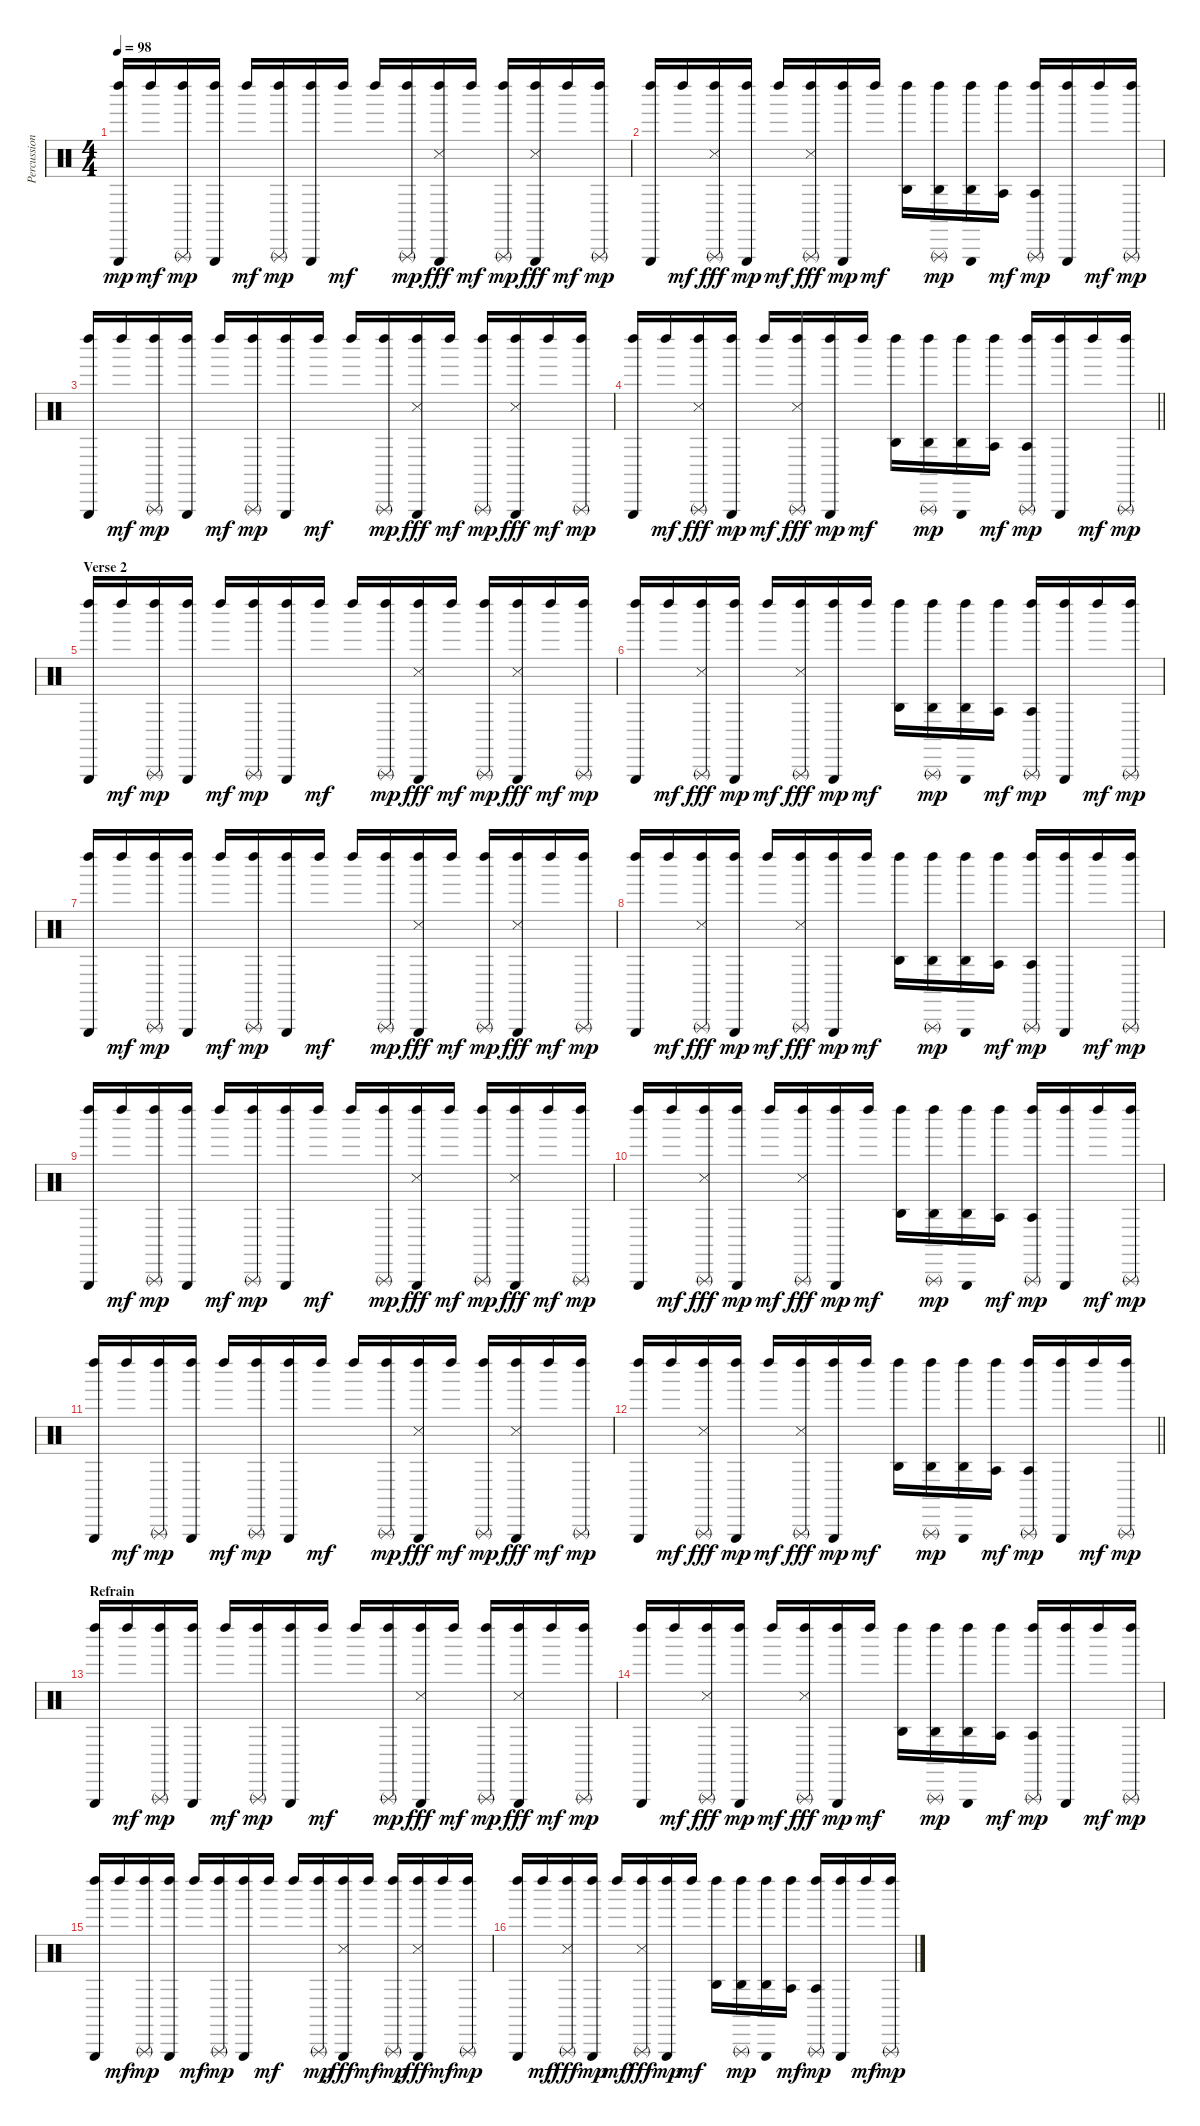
\track ("Percussions (Dr-0)" "Percussion") {instrument percussion}
\staff {score}
\articulation defaults
\ts (4 4)
\tempo 98
\clef neutral
\ks c
("Left Maraca (hit)" "Triangle (hit)").16{dy mp} "Left Maraca (hit)".16{dy mf} ("Left Maraca (hit)" "Triangle (rnute)").16{dy mp} ("Left Maraca (hit)" "Triangle (hit)").16 "Left Maraca (hit)".16{dy mf} ("Left Maraca (hit)" "Triangle (rnute)").16{dy mp} ("Left Maraca (hit)" "Triangle (hit)").16 "Left Maraca (hit)".16{dy mf} "Left Maraca (hit)".16 ("Left Maraca (hit)" "Triangle (rnute)").16{dy mp} ("Left Maraca (hit)" "Triangle (hit)" "Snare (side stick) 3").16{dy fff} "Left Maraca (hit)".16{dy mf} ("Left Maraca (hit)" "Triangle (rnute)").16{dy mp} ("Left Maraca (hit)" "Triangle (hit)" "Snare (side stick) 3").16{dy fff} "Left Maraca (hit)".16{dy mf} ("Left Maraca (hit)" "Triangle (rnute)").16{dy mp} |
("Left Maraca (hit)" "Triangle (hit)").16 "Left Maraca (hit)".16{dy mf} ("Left Maraca (hit)" "Triangle (rnute)" "Snare (side stick) 3").16{dy fff} ("Left Maraca (hit)" "Triangle (hit)").16{dy mp} "Left Maraca (hit)".16{dy mf} ("Left Maraca (hit)" "Triangle (rnute)" "Snare (side stick) 3").16{dy fff} ("Left Maraca (hit)" "Triangle (hit)").16{dy mp} "Left Maraca (hit)".16{dy mf} ("Left Maraca (hit)" "Agogo high (hit)").16 ("Left Maraca (hit)" "Triangle (rnute)" "Agogo high (hit)").16{dy mp} ("Left Maraca (hit)" "Triangle (hit)" "Agogo high (hit)").16 ("Left Maraca (hit)" "Agogo tow (hit)").16{dy mf} ("Left Maraca (hit)" "Triangle (rnute)" "Agogo tow (hit)").16{dy mp} ("Left Maraca (hit)" "Triangle (hit)").16 "Left Maraca (hit)".16{dy mf} ("Left Maraca (hit)" "Triangle (rnute)").16{dy mp} |
("Left Maraca (hit)" "Triangle (hit)").16 "Left Maraca (hit)".16{dy mf} ("Left Maraca (hit)" "Triangle (rnute)").16{dy mp} ("Left Maraca (hit)" "Triangle (hit)").16 "Left Maraca (hit)".16{dy mf} ("Left Maraca (hit)" "Triangle (rnute)").16{dy mp} ("Left Maraca (hit)" "Triangle (hit)").16 "Left Maraca (hit)".16{dy mf} "Left Maraca (hit)".16 ("Left Maraca (hit)" "Triangle (rnute)").16{dy mp} ("Left Maraca (hit)" "Triangle (hit)" "Snare (side stick) 3").16{dy fff} "Left Maraca (hit)".16{dy mf} ("Left Maraca (hit)" "Triangle (rnute)").16{dy mp} ("Left Maraca (hit)" "Triangle (hit)" "Snare (side stick) 3").16{dy fff} "Left Maraca (hit)".16{dy mf} ("Left Maraca (hit)" "Triangle (rnute)").16{dy mp} |
\barLineRight lightlight
("Left Maraca (hit)" "Triangle (hit)").16 "Left Maraca (hit)".16{dy mf} ("Left Maraca (hit)" "Triangle (rnute)" "Snare (side stick) 3").16{dy fff} ("Left Maraca (hit)" "Triangle (hit)").16{dy mp} "Left Maraca (hit)".16{dy mf} ("Left Maraca (hit)" "Triangle (rnute)" "Snare (side stick) 3").16{dy fff} ("Left Maraca (hit)" "Triangle (hit)").16{dy mp} "Left Maraca (hit)".16{dy mf} ("Left Maraca (hit)" "Agogo high (hit)").16 ("Left Maraca (hit)" "Triangle (rnute)" "Agogo high (hit)").16{dy mp} ("Left Maraca (hit)" "Triangle (hit)" "Agogo high (hit)").16 ("Left Maraca (hit)" "Agogo tow (hit)").16{dy mf} ("Left Maraca (hit)" "Triangle (rnute)" "Agogo tow (hit)").16{dy mp} ("Left Maraca (hit)" "Triangle (hit)").16 "Left Maraca (hit)".16{dy mf} ("Left Maraca (hit)" "Triangle (rnute)").16{dy mp} |
\section ("" "Verse 2")
("Left Maraca (hit)" "Triangle (hit)").16 "Left Maraca (hit)".16{dy mf} ("Left Maraca (hit)" "Triangle (rnute)").16{dy mp} ("Left Maraca (hit)" "Triangle (hit)").16 "Left Maraca (hit)".16{dy mf} ("Left Maraca (hit)" "Triangle (rnute)").16{dy mp} ("Left Maraca (hit)" "Triangle (hit)").16 "Left Maraca (hit)".16{dy mf} "Left Maraca (hit)".16 ("Left Maraca (hit)" "Triangle (rnute)").16{dy mp} ("Left Maraca (hit)" "Triangle (hit)" "Snare (side stick) 3").16{dy fff} "Left Maraca (hit)".16{dy mf} ("Left Maraca (hit)" "Triangle (rnute)").16{dy mp} ("Left Maraca (hit)" "Triangle (hit)" "Snare (side stick) 3").16{dy fff} "Left Maraca (hit)".16{dy mf} ("Left Maraca (hit)" "Triangle (rnute)").16{dy mp} |
("Left Maraca (hit)" "Triangle (hit)").16 "Left Maraca (hit)".16{dy mf} ("Left Maraca (hit)" "Triangle (rnute)" "Snare (side stick) 3").16{dy fff} ("Left Maraca (hit)" "Triangle (hit)").16{dy mp} "Left Maraca (hit)".16{dy mf} ("Left Maraca (hit)" "Triangle (rnute)" "Snare (side stick) 3").16{dy fff} ("Left Maraca (hit)" "Triangle (hit)").16{dy mp} "Left Maraca (hit)".16{dy mf} ("Left Maraca (hit)" "Agogo high (hit)").16 ("Left Maraca (hit)" "Triangle (rnute)" "Agogo high (hit)").16{dy mp} ("Left Maraca (hit)" "Triangle (hit)" "Agogo high (hit)").16 ("Left Maraca (hit)" "Agogo tow (hit)").16{dy mf} ("Left Maraca (hit)" "Triangle (rnute)" "Agogo tow (hit)").16{dy mp} ("Left Maraca (hit)" "Triangle (hit)").16 "Left Maraca (hit)".16{dy mf} ("Left Maraca (hit)" "Triangle (rnute)").16{dy mp} |
("Left Maraca (hit)" "Triangle (hit)").16 "Left Maraca (hit)".16{dy mf} ("Left Maraca (hit)" "Triangle (rnute)").16{dy mp} ("Left Maraca (hit)" "Triangle (hit)").16 "Left Maraca (hit)".16{dy mf} ("Left Maraca (hit)" "Triangle (rnute)").16{dy mp} ("Left Maraca (hit)" "Triangle (hit)").16 "Left Maraca (hit)".16{dy mf} "Left Maraca (hit)".16 ("Left Maraca (hit)" "Triangle (rnute)").16{dy mp} ("Left Maraca (hit)" "Triangle (hit)" "Snare (side stick) 3").16{dy fff} "Left Maraca (hit)".16{dy mf} ("Left Maraca (hit)" "Triangle (rnute)").16{dy mp} ("Left Maraca (hit)" "Triangle (hit)" "Snare (side stick) 3").16{dy fff} "Left Maraca (hit)".16{dy mf} ("Left Maraca (hit)" "Triangle (rnute)").16{dy mp} |
("Left Maraca (hit)" "Triangle (hit)").16 "Left Maraca (hit)".16{dy mf} ("Left Maraca (hit)" "Triangle (rnute)" "Snare (side stick) 3").16{dy fff} ("Left Maraca (hit)" "Triangle (hit)").16{dy mp} "Left Maraca (hit)".16{dy mf} ("Left Maraca (hit)" "Triangle (rnute)" "Snare (side stick) 3").16{dy fff} ("Left Maraca (hit)" "Triangle (hit)").16{dy mp} "Left Maraca (hit)".16{dy mf} ("Left Maraca (hit)" "Agogo high (hit)").16 ("Left Maraca (hit)" "Triangle (rnute)" "Agogo high (hit)").16{dy mp} ("Left Maraca (hit)" "Triangle (hit)" "Agogo high (hit)").16 ("Left Maraca (hit)" "Agogo tow (hit)").16{dy mf} ("Left Maraca (hit)" "Triangle (rnute)" "Agogo tow (hit)").16{dy mp} ("Left Maraca (hit)" "Triangle (hit)").16 "Left Maraca (hit)".16{dy mf} ("Left Maraca (hit)" "Triangle (rnute)").16{dy mp} |
("Left Maraca (hit)" "Triangle (hit)").16 "Left Maraca (hit)".16{dy mf} ("Left Maraca (hit)" "Triangle (rnute)").16{dy mp} ("Left Maraca (hit)" "Triangle (hit)").16 "Left Maraca (hit)".16{dy mf} ("Left Maraca (hit)" "Triangle (rnute)").16{dy mp} ("Left Maraca (hit)" "Triangle (hit)").16 "Left Maraca (hit)".16{dy mf} "Left Maraca (hit)".16 ("Left Maraca (hit)" "Triangle (rnute)").16{dy mp} ("Left Maraca (hit)" "Triangle (hit)" "Snare (side stick) 3").16{dy fff} "Left Maraca (hit)".16{dy mf} ("Left Maraca (hit)" "Triangle (rnute)").16{dy mp} ("Left Maraca (hit)" "Triangle (hit)" "Snare (side stick) 3").16{dy fff} "Left Maraca (hit)".16{dy mf} ("Left Maraca (hit)" "Triangle (rnute)").16{dy mp} |
("Left Maraca (hit)" "Triangle (hit)").16 "Left Maraca (hit)".16{dy mf} ("Left Maraca (hit)" "Triangle (rnute)" "Snare (side stick) 3").16{dy fff} ("Left Maraca (hit)" "Triangle (hit)").16{dy mp} "Left Maraca (hit)".16{dy mf} ("Left Maraca (hit)" "Triangle (rnute)" "Snare (side stick) 3").16{dy fff} ("Left Maraca (hit)" "Triangle (hit)").16{dy mp} "Left Maraca (hit)".16{dy mf} ("Left Maraca (hit)" "Agogo high (hit)").16 ("Left Maraca (hit)" "Triangle (rnute)" "Agogo high (hit)").16{dy mp} ("Left Maraca (hit)" "Triangle (hit)" "Agogo high (hit)").16 ("Left Maraca (hit)" "Agogo tow (hit)").16{dy mf} ("Left Maraca (hit)" "Triangle (rnute)" "Agogo tow (hit)").16{dy mp} ("Left Maraca (hit)" "Triangle (hit)").16 "Left Maraca (hit)".16{dy mf} ("Left Maraca (hit)" "Triangle (rnute)").16{dy mp} |
("Left Maraca (hit)" "Triangle (hit)").16 "Left Maraca (hit)".16{dy mf} ("Left Maraca (hit)" "Triangle (rnute)").16{dy mp} ("Left Maraca (hit)" "Triangle (hit)").16 "Left Maraca (hit)".16{dy mf} ("Left Maraca (hit)" "Triangle (rnute)").16{dy mp} ("Left Maraca (hit)" "Triangle (hit)").16 "Left Maraca (hit)".16{dy mf} "Left Maraca (hit)".16 ("Left Maraca (hit)" "Triangle (rnute)").16{dy mp} ("Left Maraca (hit)" "Triangle (hit)" "Snare (side stick) 3").16{dy fff} "Left Maraca (hit)".16{dy mf} ("Left Maraca (hit)" "Triangle (rnute)").16{dy mp} ("Left Maraca (hit)" "Triangle (hit)" "Snare (side stick) 3").16{dy fff} "Left Maraca (hit)".16{dy mf} ("Left Maraca (hit)" "Triangle (rnute)").16{dy mp} |
\barLineRight lightlight
("Left Maraca (hit)" "Triangle (hit)").16 "Left Maraca (hit)".16{dy mf} ("Left Maraca (hit)" "Triangle (rnute)" "Snare (side stick) 3").16{dy fff} ("Left Maraca (hit)" "Triangle (hit)").16{dy mp} "Left Maraca (hit)".16{dy mf} ("Left Maraca (hit)" "Triangle (rnute)" "Snare (side stick) 3").16{dy fff} ("Left Maraca (hit)" "Triangle (hit)").16{dy mp} "Left Maraca (hit)".16{dy mf} ("Left Maraca (hit)" "Agogo high (hit)").16 ("Left Maraca (hit)" "Triangle (rnute)" "Agogo high (hit)").16{dy mp} ("Left Maraca (hit)" "Triangle (hit)" "Agogo high (hit)").16 ("Left Maraca (hit)" "Agogo tow (hit)").16{dy mf} ("Left Maraca (hit)" "Triangle (rnute)" "Agogo tow (hit)").16{dy mp} ("Left Maraca (hit)" "Triangle (hit)").16 "Left Maraca (hit)".16{dy mf} ("Left Maraca (hit)" "Triangle (rnute)").16{dy mp} |
\section ("" "Refrain")
("Left Maraca (hit)" "Triangle (hit)").16 "Left Maraca (hit)".16{dy mf} ("Left Maraca (hit)" "Triangle (rnute)").16{dy mp} ("Left Maraca (hit)" "Triangle (hit)").16 "Left Maraca (hit)".16{dy mf} ("Left Maraca (hit)" "Triangle (rnute)").16{dy mp} ("Left Maraca (hit)" "Triangle (hit)").16 "Left Maraca (hit)".16{dy mf} "Left Maraca (hit)".16 ("Left Maraca (hit)" "Triangle (rnute)").16{dy mp} ("Left Maraca (hit)" "Triangle (hit)" "Snare (side stick) 3").16{dy fff} "Left Maraca (hit)".16{dy mf} ("Left Maraca (hit)" "Triangle (rnute)").16{dy mp} ("Left Maraca (hit)" "Triangle (hit)" "Snare (side stick) 3").16{dy fff} "Left Maraca (hit)".16{dy mf} ("Left Maraca (hit)" "Triangle (rnute)").16{dy mp} |
("Left Maraca (hit)" "Triangle (hit)").16 "Left Maraca (hit)".16{dy mf} ("Left Maraca (hit)" "Triangle (rnute)" "Snare (side stick) 3").16{dy fff} ("Left Maraca (hit)" "Triangle (hit)").16{dy mp} "Left Maraca (hit)".16{dy mf} ("Left Maraca (hit)" "Triangle (rnute)" "Snare (side stick) 3").16{dy fff} ("Left Maraca (hit)" "Triangle (hit)").16{dy mp} "Left Maraca (hit)".16{dy mf} ("Left Maraca (hit)" "Agogo high (hit)").16 ("Left Maraca (hit)" "Triangle (rnute)" "Agogo high (hit)").16{dy mp} ("Left Maraca (hit)" "Triangle (hit)" "Agogo high (hit)").16 ("Left Maraca (hit)" "Agogo tow (hit)").16{dy mf} ("Left Maraca (hit)" "Triangle (rnute)" "Agogo tow (hit)").16{dy mp} ("Left Maraca (hit)" "Triangle (hit)").16 "Left Maraca (hit)".16{dy mf} ("Left Maraca (hit)" "Triangle (rnute)").16{dy mp} |
("Left Maraca (hit)" "Triangle (hit)").16 "Left Maraca (hit)".16{dy mf} ("Left Maraca (hit)" "Triangle (rnute)").16{dy mp} ("Left Maraca (hit)" "Triangle (hit)").16 "Left Maraca (hit)".16{dy mf} ("Left Maraca (hit)" "Triangle (rnute)").16{dy mp} ("Left Maraca (hit)" "Triangle (hit)").16 "Left Maraca (hit)".16{dy mf} "Left Maraca (hit)".16 ("Left Maraca (hit)" "Triangle (rnute)").16{dy mp} ("Left Maraca (hit)" "Triangle (hit)" "Snare (side stick) 3").16{dy fff} "Left Maraca (hit)".16{dy mf} ("Left Maraca (hit)" "Triangle (rnute)").16{dy mp} ("Left Maraca (hit)" "Triangle (hit)" "Snare (side stick) 3").16{dy fff} "Left Maraca (hit)".16{dy mf} ("Left Maraca (hit)" "Triangle (rnute)").16{dy mp} |
("Left Maraca (hit)" "Triangle (hit)").16 "Left Maraca (hit)".16{dy mf} ("Left Maraca (hit)" "Triangle (rnute)" "Snare (side stick) 3").16{dy fff} ("Left Maraca (hit)" "Triangle (hit)").16{dy mp} "Left Maraca (hit)".16{dy mf} ("Left Maraca (hit)" "Triangle (rnute)" "Snare (side stick) 3").16{dy fff} ("Left Maraca (hit)" "Triangle (hit)").16{dy mp} "Left Maraca (hit)".16{dy mf} ("Left Maraca (hit)" "Agogo high (hit)").16 ("Left Maraca (hit)" "Triangle (rnute)" "Agogo high (hit)").16{dy mp} ("Left Maraca (hit)" "Triangle (hit)" "Agogo high (hit)").16 ("Left Maraca (hit)" "Agogo tow (hit)").16{dy mf} ("Left Maraca (hit)" "Triangle (rnute)" "Agogo tow (hit)").16{dy mp} ("Left Maraca (hit)" "Triangle (hit)").16 "Left Maraca (hit)".16{dy mf} ("Left Maraca (hit)" "Triangle (rnute)").16{dy mp}
